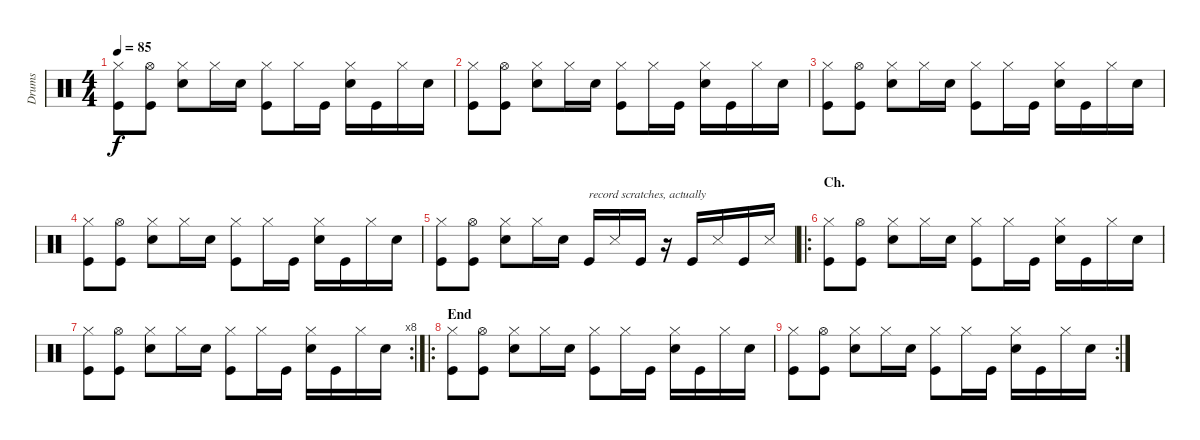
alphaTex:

\track ("Drums" "Drums") {instrument percussion}
\staff {score}
\articulation defaults
\ts (4 4)
\tempo 85
\clef neutral
\ks c
("Hi-Hat (closed)" "Kick (hit)").8{dy f} ("Hi-Hat (open)" "Kick (hit)").8 ("Hi-Hat (closed)" "Snare (hit) 2").8 "Hi-Hat (closed)".16 "Snare (hit) 2".16 ("Hi-Hat (closed)" "Kick (hit)").8 "Hi-Hat (closed)".16 "Kick (hit)".16 ("Hi-Hat (closed)" "Snare (hit) 2").16 "Kick (hit)".16 "Hi-Hat (closed)".16 "Snare (hit) 2".16 |
("Hi-Hat (closed)" "Kick (hit)").8 ("Hi-Hat (open)" "Kick (hit)").8 ("Hi-Hat (closed)" "Snare (hit) 2").8 "Hi-Hat (closed)".16 "Snare (hit) 2".16 ("Hi-Hat (closed)" "Kick (hit)").8 "Hi-Hat (closed)".16 "Kick (hit)".16 ("Hi-Hat (closed)" "Snare (hit) 2").16 "Kick (hit)".16 "Hi-Hat (closed)".16 "Snare (hit) 2".16 |
("Hi-Hat (closed)" "Kick (hit)").8 ("Hi-Hat (open)" "Kick (hit)").8 ("Hi-Hat (closed)" "Snare (hit) 2").8 "Hi-Hat (closed)".16 "Snare (hit) 2".16 ("Hi-Hat (closed)" "Kick (hit)").8 "Hi-Hat (closed)".16 "Kick (hit)".16 ("Hi-Hat (closed)" "Snare (hit) 2").16 "Kick (hit)".16 "Hi-Hat (closed)".16 "Snare (hit) 2".16 |
("Hi-Hat (closed)" "Kick (hit)").8 ("Hi-Hat (open)" "Kick (hit)").8 ("Hi-Hat (closed)" "Snare (hit) 2").8 "Hi-Hat (closed)".16 "Snare (hit) 2".16 ("Hi-Hat (closed)" "Kick (hit)").8 "Hi-Hat (closed)".16 "Kick (hit)".16 ("Hi-Hat (closed)" "Snare (hit) 2").16 "Kick (hit)".16 "Hi-Hat (closed)".16 "Snare (hit) 2".16 |
("Hi-Hat (closed)" "Kick (hit)").8 ("Hi-Hat (open)" "Kick (hit)").8 ("Hi-Hat (closed)" "Snare (hit) 2").8 "Hi-Hat (closed)".16 "Snare (hit) 2".16 "Kick (hit)".16{txt "record scratches, actually"} "Snare (side stick) 3".16 "Kick (hit)".16 r.16 "Kick (hit)".16 "Snare (side stick) 3".16 "Kick (hit)".16 "Snare (side stick) 3".16 |
\ro
\section ("" "Ch.")
("Hi-Hat (closed)" "Kick (hit)").8 ("Hi-Hat (open)" "Kick (hit)").8 ("Hi-Hat (closed)" "Snare (hit) 2").8 "Hi-Hat (closed)".16 "Snare (hit) 2".16 ("Hi-Hat (closed)" "Kick (hit)").8 "Hi-Hat (closed)".16 "Kick (hit)".16 ("Hi-Hat (closed)" "Snare (hit) 2").16 "Kick (hit)".16 "Hi-Hat (closed)".16 "Snare (hit) 2".16 |
\rc 8
("Hi-Hat (closed)" "Kick (hit)").8 ("Hi-Hat (open)" "Kick (hit)").8 ("Hi-Hat (closed)" "Snare (hit) 2").8 "Hi-Hat (closed)".16 "Snare (hit) 2".16 ("Hi-Hat (closed)" "Kick (hit)").8 "Hi-Hat (closed)".16 "Kick (hit)".16 ("Hi-Hat (closed)" "Snare (hit) 2").16 "Kick (hit)".16 "Hi-Hat (closed)".16 "Snare (hit) 2".16 |
\ro
\section ("" "End")
("Hi-Hat (closed)" "Kick (hit)").8 ("Hi-Hat (open)" "Kick (hit)").8 ("Hi-Hat (closed)" "Snare (hit) 2").8 "Hi-Hat (closed)".16 "Snare (hit) 2".16 ("Hi-Hat (closed)" "Kick (hit)").8 "Hi-Hat (closed)".16 "Kick (hit)".16 ("Hi-Hat (closed)" "Snare (hit) 2").16 "Kick (hit)".16 "Hi-Hat (closed)".16 "Snare (hit) 2".16 |
\rc 2
("Hi-Hat (closed)" "Kick (hit)").8 ("Hi-Hat (open)" "Kick (hit)").8 ("Hi-Hat (closed)" "Snare (hit) 2").8 "Hi-Hat (closed)".16 "Snare (hit) 2".16 ("Hi-Hat (closed)" "Kick (hit)").8 "Hi-Hat (closed)".16 "Kick (hit)".16 ("Hi-Hat (closed)" "Snare (hit) 2").16 "Kick (hit)".16 "Hi-Hat (closed)".16 "Snare (hit) 2".16
